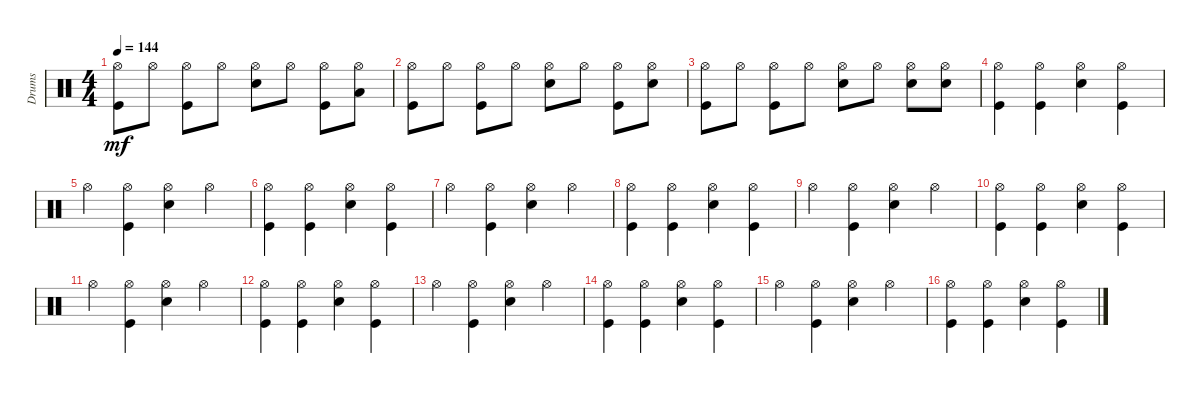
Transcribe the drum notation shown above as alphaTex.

\track ("Drums               " "Drums     ") {instrument percussion}
\staff {score}
\articulation defaults
\ts (4 4)
\tempo 144
\clef neutral
\ks c
("Kick (hit)" "Hi-Hat (open)").8{dy mf} "Hi-Hat (open)".8 ("Kick (hit)" "Hi-Hat (open)").8 "Hi-Hat (open)".8 ("Snare (hit) 2" "Hi-Hat (open)").8 "Hi-Hat (open)".8 ("Kick (hit)" "Hi-Hat (open)").8 ("Low Tom (hit)" "Hi-Hat (open)").8 |
("Kick (hit)" "Hi-Hat (open)").8 "Hi-Hat (open)".8 ("Kick (hit)" "Hi-Hat (open)").8 "Hi-Hat (open)".8 ("Snare (hit) 2" "Hi-Hat (open)").8 "Hi-Hat (open)".8 ("Hi-Hat (open)" "Kick (hit)").8 ("Snare (hit) 2" "Hi-Hat (open)").8 |
("Kick (hit)" "Hi-Hat (open)").8 "Hi-Hat (open)".8 ("Kick (hit)" "Hi-Hat (open)").8 "Hi-Hat (open)".8 ("Snare (hit) 2" "Hi-Hat (open)").8 "Hi-Hat (open)".8 ("Hi-Hat (open)" "Snare (hit) 2").8 ("Snare (hit) 2" "Hi-Hat (open)").8 |
("Kick (hit)" "Hi-Hat (open)").4 ("Kick (hit)" "Hi-Hat (open)").4 ("Snare (hit) 2" "Hi-Hat (open)").4 ("Kick (hit)" "Hi-Hat (open)").4 |
"Hi-Hat (open)".4 ("Kick (hit)" "Hi-Hat (open)").4 ("Snare (hit) 2" "Hi-Hat (open)").4 "Hi-Hat (open)".4 |
("Kick (hit)" "Hi-Hat (open)").4 ("Kick (hit)" "Hi-Hat (open)").4 ("Snare (hit) 2" "Hi-Hat (open)").4 ("Kick (hit)" "Hi-Hat (open)").4 |
"Hi-Hat (open)".4 ("Kick (hit)" "Hi-Hat (open)").4 ("Snare (hit) 2" "Hi-Hat (open)").4 "Hi-Hat (open)".4 |
("Kick (hit)" "Hi-Hat (open)").4 ("Kick (hit)" "Hi-Hat (open)").4 ("Snare (hit) 2" "Hi-Hat (open)").4 ("Kick (hit)" "Hi-Hat (open)").4 |
"Hi-Hat (open)".4 ("Kick (hit)" "Hi-Hat (open)").4 ("Snare (hit) 2" "Hi-Hat (open)").4 "Hi-Hat (open)".4 |
("Kick (hit)" "Hi-Hat (open)").4 ("Kick (hit)" "Hi-Hat (open)").4 ("Snare (hit) 2" "Hi-Hat (open)").4 ("Kick (hit)" "Hi-Hat (open)").4 |
"Hi-Hat (open)".4 ("Kick (hit)" "Hi-Hat (open)").4 ("Snare (hit) 2" "Hi-Hat (open)").4 "Hi-Hat (open)".4 |
("Kick (hit)" "Hi-Hat (open)").4 ("Kick (hit)" "Hi-Hat (open)").4 ("Snare (hit) 2" "Hi-Hat (open)").4 ("Kick (hit)" "Hi-Hat (open)").4 |
"Hi-Hat (open)".4 ("Kick (hit)" "Hi-Hat (open)").4 ("Snare (hit) 2" "Hi-Hat (open)").4 "Hi-Hat (open)".4 |
("Kick (hit)" "Hi-Hat (open)").4 ("Kick (hit)" "Hi-Hat (open)").4 ("Snare (hit) 2" "Hi-Hat (open)").4 ("Kick (hit)" "Hi-Hat (open)").4 |
"Hi-Hat (open)".4 ("Kick (hit)" "Hi-Hat (open)").4 ("Snare (hit) 2" "Hi-Hat (open)").4 "Hi-Hat (open)".4 |
("Kick (hit)" "Hi-Hat (open)").4 ("Kick (hit)" "Hi-Hat (open)").4 ("Snare (hit) 2" "Hi-Hat (open)").4 ("Kick (hit)" "Hi-Hat (open)").4
